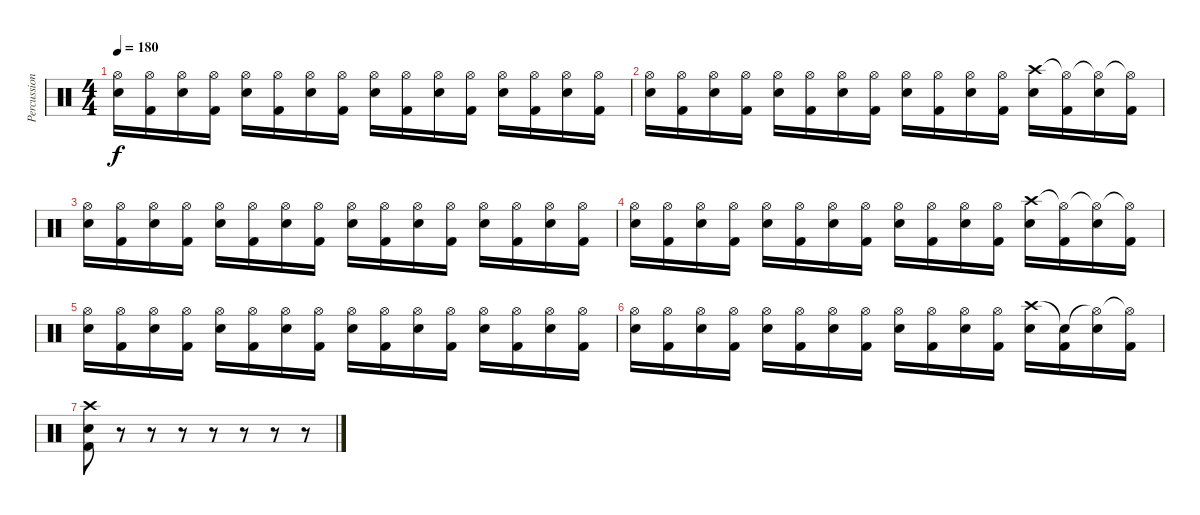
\track ("Percussion" "Percussion") {instrument percussion}
\staff {score}
\articulation defaults
\ts (4 4)
\tempo 180
\clef neutral
\ks c
("Hi-Hat (open)" "Snare (hit) 2").16{dy f} ("Hi-Hat (open)" "Kick (hit) 2").16 ("Hi-Hat (open)" "Snare (hit) 2").16 ("Hi-Hat (open)" "Kick (hit) 2").16 ("Hi-Hat (open)" "Snare (hit) 2").16 ("Hi-Hat (open)" "Kick (hit) 2").16 ("Hi-Hat (open)" "Snare (hit) 2").16 ("Hi-Hat (open)" "Kick (hit) 2").16 ("Hi-Hat (open)" "Snare (hit) 2").16 ("Hi-Hat (open)" "Kick (hit) 2").16 ("Hi-Hat (open)" "Snare (hit) 2").16 ("Hi-Hat (open)" "Kick (hit) 2").16 ("Hi-Hat (open)" "Snare (hit) 2").16 ("Hi-Hat (open)" "Kick (hit) 2").16 ("Hi-Hat (open)" "Snare (hit) 2").16 ("Hi-Hat (open)" "Kick (hit) 2").16 |
("Hi-Hat (open)" "Snare (hit) 2").16 ("Hi-Hat (open)" "Kick (hit) 2").16 ("Hi-Hat (open)" "Snare (hit) 2").16 ("Hi-Hat (open)" "Kick (hit) 2").16 ("Hi-Hat (open)" "Snare (hit) 2").16 ("Hi-Hat (open)" "Kick (hit) 2").16 ("Hi-Hat (open)" "Snare (hit) 2").16 ("Hi-Hat (open)" "Kick (hit) 2").16 ("Hi-Hat (open)" "Snare (hit) 2").16 ("Hi-Hat (open)" "Kick (hit) 2").16 ("Hi-Hat (open)" "Snare (hit) 2").16 ("Hi-Hat (open)" "Kick (hit) 2").16 ("Crash high (hit)" "Snare (hit) 2").16 ("Hi-Hat (open)"{t} "Kick (hit) 2").16 ("Hi-Hat (open)"{t} "Snare (hit) 2").16 ("Hi-Hat (open)"{t} "Kick (hit) 2").16 |
("Hi-Hat (open)" "Snare (hit) 2").16 ("Hi-Hat (open)" "Kick (hit) 2").16 ("Hi-Hat (open)" "Snare (hit) 2").16 ("Hi-Hat (open)" "Kick (hit) 2").16 ("Hi-Hat (open)" "Snare (hit) 2").16 ("Hi-Hat (open)" "Kick (hit) 2").16 ("Hi-Hat (open)" "Snare (hit) 2").16 ("Hi-Hat (open)" "Kick (hit) 2").16 ("Hi-Hat (open)" "Snare (hit) 2").16 ("Hi-Hat (open)" "Kick (hit) 2").16 ("Hi-Hat (open)" "Snare (hit) 2").16 ("Hi-Hat (open)" "Kick (hit) 2").16 ("Hi-Hat (open)" "Snare (hit) 2").16 ("Hi-Hat (open)" "Kick (hit) 2").16 ("Hi-Hat (open)" "Snare (hit) 2").16 ("Hi-Hat (open)" "Kick (hit) 2").16 |
("Hi-Hat (open)" "Snare (hit) 2").16 ("Hi-Hat (open)" "Kick (hit) 2").16 ("Hi-Hat (open)" "Snare (hit) 2").16 ("Hi-Hat (open)" "Kick (hit) 2").16 ("Hi-Hat (open)" "Snare (hit) 2").16 ("Hi-Hat (open)" "Kick (hit) 2").16 ("Hi-Hat (open)" "Snare (hit) 2").16 ("Hi-Hat (open)" "Kick (hit) 2").16 ("Hi-Hat (open)" "Snare (hit) 2").16 ("Hi-Hat (open)" "Kick (hit) 2").16 ("Hi-Hat (open)" "Snare (hit) 2").16 ("Hi-Hat (open)" "Kick (hit) 2").16 ("Crash high (hit)" "Snare (hit) 2").16 ("Hi-Hat (open)"{t} "Kick (hit) 2").16 ("Hi-Hat (open)"{t} "Snare (hit) 2").16 ("Hi-Hat (open)"{t} "Kick (hit) 2").16 |
("Hi-Hat (open)" "Snare (hit) 2").16 ("Hi-Hat (open)" "Kick (hit) 2").16 ("Hi-Hat (open)" "Snare (hit) 2").16 ("Hi-Hat (open)" "Kick (hit) 2").16 ("Hi-Hat (open)" "Snare (hit) 2").16 ("Hi-Hat (open)" "Kick (hit) 2").16 ("Hi-Hat (open)" "Snare (hit) 2").16 ("Hi-Hat (open)" "Kick (hit) 2").16 ("Hi-Hat (open)" "Snare (hit) 2").16 ("Hi-Hat (open)" "Kick (hit) 2").16 ("Hi-Hat (open)" "Snare (hit) 2").16 ("Hi-Hat (open)" "Kick (hit) 2").16 ("Hi-Hat (open)" "Snare (hit) 2").16 ("Hi-Hat (open)" "Kick (hit) 2").16 ("Hi-Hat (open)" "Snare (hit) 2").16 ("Hi-Hat (open)" "Kick (hit) 2").16 |
("Hi-Hat (open)" "Snare (hit) 2").16 ("Hi-Hat (open)" "Kick (hit) 2").16 ("Hi-Hat (open)" "Snare (hit) 2").16 ("Hi-Hat (open)" "Kick (hit) 2").16 ("Hi-Hat (open)" "Snare (hit) 2").16 ("Hi-Hat (open)" "Kick (hit) 2").16 ("Hi-Hat (open)" "Snare (hit) 2").16 ("Hi-Hat (open)" "Kick (hit) 2").16 ("Hi-Hat (open)" "Snare (hit) 2").16 ("Hi-Hat (open)" "Kick (hit) 2").16 ("Hi-Hat (open)" "Snare (hit) 2").16 ("Hi-Hat (open)" "Kick (hit) 2").16 ("Crash high (hit)" "Snare (hit) 2").16 ("Snare (hit)"{t} "Kick (hit) 2").16 ("Hi-Hat (open)"{t} "Snare (hit) 2").16 ("Hi-Hat (open)"{t} "Kick (hit) 2").16 |
("Kick (hit) 2" "Snare (hit) 2" "Crash high (hit)").8 r.8 r.8 r.8 r.8 r.8 r.8 r.8
